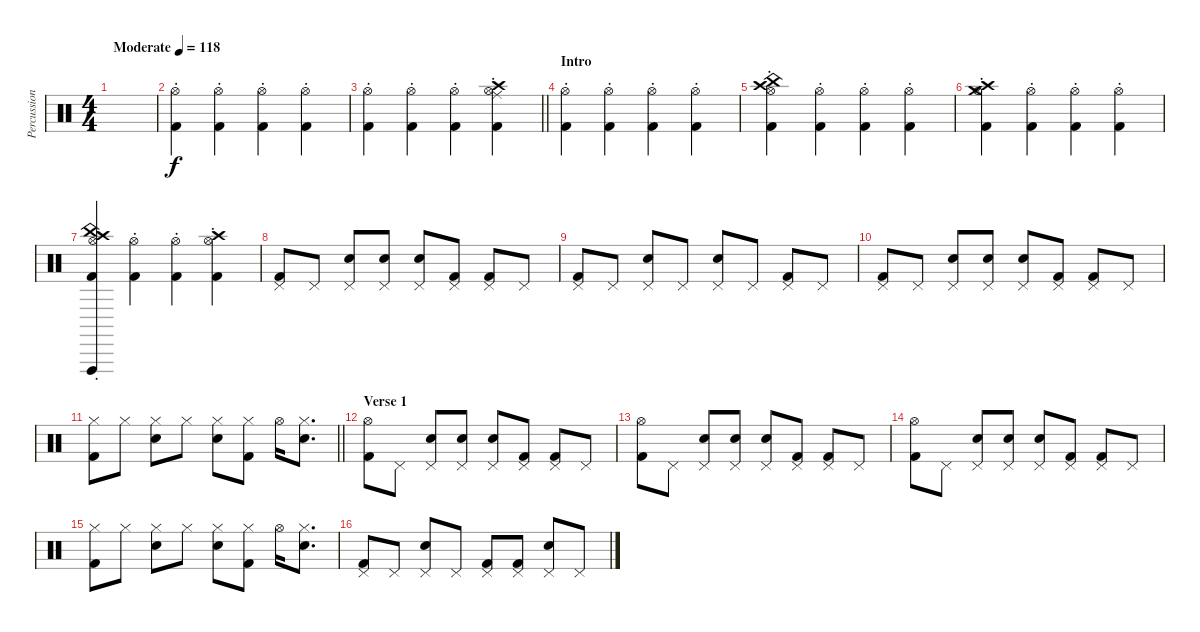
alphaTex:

\track ("Percussion" "Percussion") {instrument percussion}
\staff {score}
\articulation defaults
\ts (4 4)
\tempo (118 "Moderate")
\clef neutral
\ks c
|
("Hi-Hat (open)"{st} "Kick (hit) 2").4 ("Hi-Hat (open)"{st} "Kick (hit) 2").4 ("Hi-Hat (open)"{st} "Kick (hit) 2").4 ("Hi-Hat (open)"{st} "Kick (hit) 2").4 |
\barLineRight lightlight
("Hi-Hat (open)"{st} "Kick (hit) 2").4 ("Hi-Hat (open)"{st} "Kick (hit) 2").4 ("Hi-Hat (open)"{st} "Kick (hit) 2").4 ("Hi-Hat (open)"{st} "Kick (hit) 2" "Ride (middle)" "Crash high (hit)").4 |
\section ("" "Intro")
("Hi-Hat (open)"{st} "Kick (hit) 2").4 ("Hi-Hat (open)"{st} "Kick (hit) 2").4 ("Hi-Hat (open)"{st} "Kick (hit) 2").4 ("Hi-Hat (open)"{st} "Kick (hit) 2").4 |
("Hi-Hat (open)"{st} "Kick (hit) 2" "China (hit)" "Crash high (hit)").4 ("Hi-Hat (open)"{st} "Kick (hit) 2").4 ("Hi-Hat (open)"{st} "Kick (hit) 2").4 ("Hi-Hat (open)"{st} "Kick (hit) 2").4 |
("Hi-Hat (open)"{st} "Kick (hit) 2" "Crash medium (hit)" "Crash high (hit)").4 ("Hi-Hat (open)"{st} "Kick (hit) 2").4 ("Hi-Hat (open)"{st} "Kick (hit) 2").4 ("Hi-Hat (open)"{st} "Kick (hit) 2").4 |
("Hi-Hat (open)"{st} "Kick (hit) 2" "China (hit)" "Crash high (hit)" "Vibraslap (hit)").4 ("Hi-Hat (open)"{st} "Kick (hit) 2").4 ("Hi-Hat (open)"{st} "Kick (hit) 2").4 ("Hi-Hat (open)"{st} "Kick (hit) 2" "Crash high (hit)").4 |
("Pedal Hi-Hat (hit)" "Kick (hit) 2").8 "Pedal Hi-Hat (hit)".8 ("Pedal Hi-Hat (hit)" "Electric Snare (hit)").8 ("Pedal Hi-Hat (hit)" "Electric Snare (hit)").8 ("Pedal Hi-Hat (hit)" "Electric Snare (hit)").8 ("Pedal Hi-Hat (hit)" "Kick (hit) 2").8 ("Pedal Hi-Hat (hit)" "Kick (hit) 2").8 "Pedal Hi-Hat (hit)".8 |
("Pedal Hi-Hat (hit)" "Kick (hit) 2").8 "Pedal Hi-Hat (hit)".8 ("Pedal Hi-Hat (hit)" "Electric Snare (hit)").8 "Pedal Hi-Hat (hit)".8 ("Pedal Hi-Hat (hit)" "Electric Snare (hit)").8 "Pedal Hi-Hat (hit)".8 ("Pedal Hi-Hat (hit)" "Kick (hit) 2").8 "Pedal Hi-Hat (hit)".8 |
("Pedal Hi-Hat (hit)" "Kick (hit) 2").8 "Pedal Hi-Hat (hit)".8 ("Pedal Hi-Hat (hit)" "Electric Snare (hit)").8 ("Pedal Hi-Hat (hit)" "Electric Snare (hit)").8 ("Pedal Hi-Hat (hit)" "Electric Snare (hit)").8 ("Pedal Hi-Hat (hit)" "Kick (hit) 2").8 ("Pedal Hi-Hat (hit)" "Kick (hit) 2").8 "Pedal Hi-Hat (hit)".8 |
\barLineRight lightlight
("Hi-Hat (closed)" "Kick (hit) 2").8 "Hi-Hat (closed)".8 ("Hi-Hat (closed)" "Electric Snare (hit)").8 "Hi-Hat (closed)".8 ("Hi-Hat (closed)" "Electric Snare (hit)").8 ("Hi-Hat (closed)" "Kick (hit) 2").8 "Hi-Hat (open)".16 ("Hi-Hat (closed)" "Electric Snare (hit)").8{d} |
\section ("" "Verse 1")
("Hi-Hat (open)" "Kick (hit) 2").8 "Pedal Hi-Hat (hit)".8 ("Pedal Hi-Hat (hit)" "Electric Snare (hit)").8 ("Pedal Hi-Hat (hit)" "Electric Snare (hit)").8 ("Pedal Hi-Hat (hit)" "Electric Snare (hit)").8 ("Pedal Hi-Hat (hit)" "Kick (hit) 2").8 ("Pedal Hi-Hat (hit)" "Kick (hit) 2").8 "Pedal Hi-Hat (hit)".8 |
("Hi-Hat (open)" "Kick (hit) 2").8 "Pedal Hi-Hat (hit)".8 ("Pedal Hi-Hat (hit)" "Electric Snare (hit)").8 ("Pedal Hi-Hat (hit)" "Electric Snare (hit)").8 ("Pedal Hi-Hat (hit)" "Electric Snare (hit)").8 ("Pedal Hi-Hat (hit)" "Kick (hit) 2").8 ("Pedal Hi-Hat (hit)" "Kick (hit) 2").8 "Pedal Hi-Hat (hit)".8 |
("Hi-Hat (open)" "Kick (hit) 2").8 "Pedal Hi-Hat (hit)".8 ("Pedal Hi-Hat (hit)" "Electric Snare (hit)").8 ("Pedal Hi-Hat (hit)" "Electric Snare (hit)").8 ("Pedal Hi-Hat (hit)" "Electric Snare (hit)").8 ("Pedal Hi-Hat (hit)" "Kick (hit) 2").8 ("Pedal Hi-Hat (hit)" "Kick (hit) 2").8 "Pedal Hi-Hat (hit)".8 |
("Hi-Hat (closed)" "Kick (hit) 2").8 "Hi-Hat (closed)".8 ("Hi-Hat (closed)" "Electric Snare (hit)").8 "Hi-Hat (closed)".8 ("Hi-Hat (closed)" "Electric Snare (hit)").8 ("Hi-Hat (closed)" "Kick (hit) 2").8 "Hi-Hat (open)".16 ("Hi-Hat (closed)" "Electric Snare (hit)").8{d} |
("Pedal Hi-Hat (hit)" "Kick (hit) 2").8 "Pedal Hi-Hat (hit)".8 ("Pedal Hi-Hat (hit)" "Electric Snare (hit)").8 "Pedal Hi-Hat (hit)".8 ("Pedal Hi-Hat (hit)" "Kick (hit) 2").8 ("Pedal Hi-Hat (hit)" "Kick (hit) 2").8 ("Pedal Hi-Hat (hit)" "Electric Snare (hit)").8 "Pedal Hi-Hat (hit)".8
